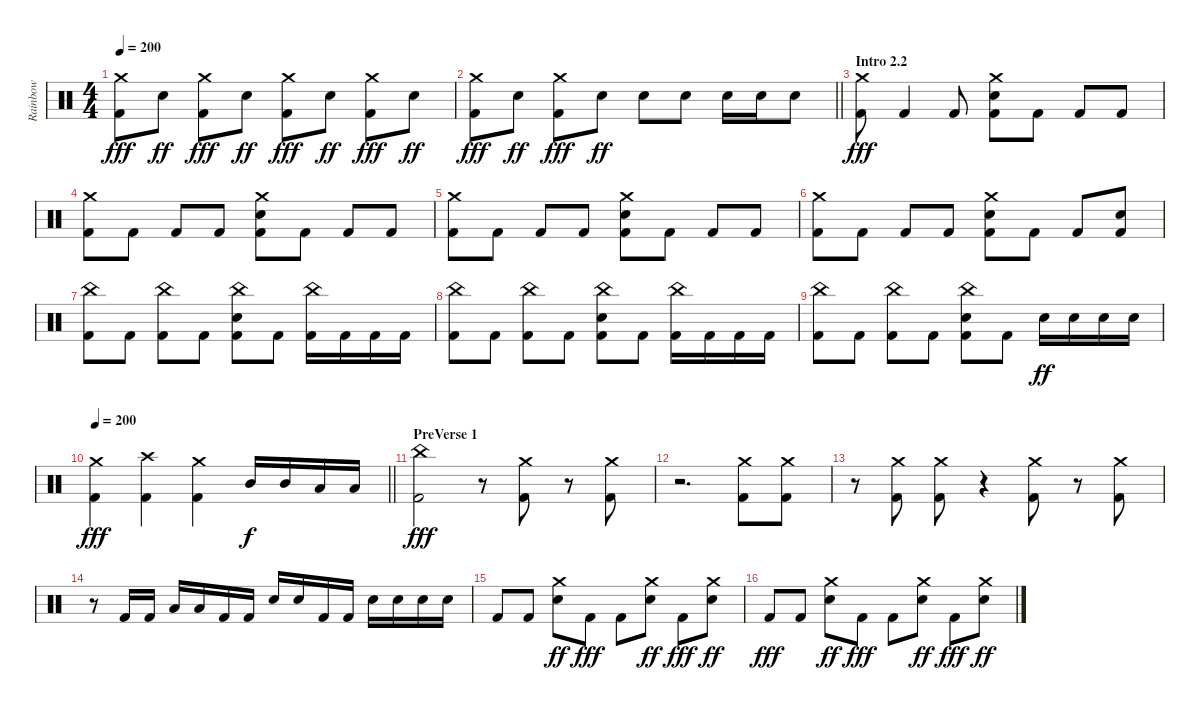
\track ("Rainbow" "Rainbow") {instrument percussion}
\staff {score}
\articulation defaults
\ts (4 4)
\tempo 200
\clef neutral
\ks c
("Crash medium (hit)" "Kick (hit) 2").8{dy fff} "Electric Snare (hit)".8{dy ff} ("Crash medium (hit)" "Kick (hit) 2").8{dy fff} "Electric Snare (hit)".8{dy ff} ("Crash medium (hit)" "Kick (hit) 2").8{dy fff} "Electric Snare (hit)".8{dy ff} ("Crash medium (hit)" "Kick (hit) 2").8{dy fff} "Electric Snare (hit)".8{dy ff} |
\barLineRight lightlight
("Crash medium (hit)" "Kick (hit) 2").8{dy fff} "Electric Snare (hit)".8{dy ff} ("Crash medium (hit)" "Kick (hit) 2").8{dy fff} "Electric Snare (hit)".8{dy ff} "Electric Snare (hit)".8 "Electric Snare (hit)".8 "Electric Snare (hit)".16 "Electric Snare (hit)".16 "Electric Snare (hit)".8 |
\section ("" "Intro 2.2")
("Crash medium (hit)" "Kick (hit) 2").8{dy fff} "Kick (hit) 2".4 "Kick (hit) 2".8 ("Crash medium (hit)" "Electric Snare (hit)" "Kick (hit) 2").8 "Kick (hit) 2".8 "Kick (hit) 2".8 "Kick (hit) 2".8 |
("Crash medium (hit)" "Kick (hit) 2").8 "Kick (hit) 2".8 "Kick (hit) 2".8 "Kick (hit) 2".8 ("Crash medium (hit)" "Electric Snare (hit)" "Kick (hit) 2").8 "Kick (hit) 2".8 "Kick (hit) 2".8 "Kick (hit) 2".8 |
("Crash medium (hit)" "Kick (hit) 2").8 "Kick (hit) 2".8 "Kick (hit) 2".8 "Kick (hit) 2".8 ("Crash medium (hit)" "Electric Snare (hit)" "Kick (hit) 2").8 "Kick (hit) 2".8 "Kick (hit) 2".8 "Kick (hit) 2".8 |
("Crash medium (hit)" "Kick (hit) 2").8 "Kick (hit) 2".8 "Kick (hit) 2".8 "Kick (hit) 2".8 ("Crash medium (hit)" "Electric Snare (hit)" "Kick (hit) 2").8 "Kick (hit) 2".8 "Kick (hit) 2".8 ("Electric Snare (hit)" "Kick (hit) 2").8 |
("China (hit)" "Kick (hit) 2").8 "Kick (hit) 2".8 ("China (hit)" "Kick (hit) 2").8 "Kick (hit) 2".8 ("China (hit)" "Electric Snare (hit)" "Kick (hit) 2").8 "Kick (hit) 2".8 ("China (hit)" "Kick (hit) 2").16 "Kick (hit) 2".16 "Kick (hit) 2".16 "Kick (hit) 2".16 |
("China (hit)" "Kick (hit) 2").8 "Kick (hit) 2".8 ("China (hit)" "Kick (hit) 2").8 "Kick (hit) 2".8 ("China (hit)" "Electric Snare (hit)" "Kick (hit) 2").8 "Kick (hit) 2".8 ("China (hit)" "Kick (hit) 2").16 "Kick (hit) 2".16 "Kick (hit) 2".16 "Kick (hit) 2".16 |
("China (hit)" "Kick (hit) 2").8 "Kick (hit) 2".8 ("China (hit)" "Kick (hit) 2").8 "Kick (hit) 2".8 ("China (hit)" "Electric Snare (hit)" "Kick (hit) 2").8 "Kick (hit) 2".8 "Electric Snare (hit)".16{dy ff} "Electric Snare (hit)".16 "Electric Snare (hit)".16 "Electric Snare (hit)".16 |
\tempo 200
\barLineRight lightlight
("Crash medium (hit)" "Kick (hit) 2").4{dy fff} ("Crash high (hit)" "Kick (hit) 2").4 ("Crash medium (hit)" "Kick (hit) 2").4 "Mid Tom (hit)".16{dy f} "Mid Tom (hit)".16 "Low Tom (hit)".16 "Low Tom (hit)".16 |
\section ("" "PreVerse 1")
("China (hit)" "Kick (hit) 2").2{dy fff} r.8 ("Crash medium (hit)" "Kick (hit) 2").8 r.8{volume 0} ("Crash medium (hit)" "Kick (hit) 2").8{volume 13} |
r.2{d volume 0} ("Crash medium (hit)" "Kick (hit) 2").8{volume 13} ("Crash medium (hit)" "Kick (hit) 2").8 |
r.8{volume 0} ("Crash medium (hit)" "Kick (hit) 2").8{volume 13} ("Crash medium (hit)" "Kick (hit) 2").8 r.4{volume 0} ("Crash medium (hit)" "Kick (hit) 2").8{volume 13} r.8{volume 0} ("Crash medium (hit)" "Kick (hit) 2").8{volume 13} |
r.8{volume 0} "Kick (hit) 2".16{volume 13} "Kick (hit) 2".16 "Low Tom (hit)".16 "Low Tom (hit)".16 "Kick (hit) 2".16 "Kick (hit) 2".16 "Electric Snare (hit)".16 "Electric Snare (hit)".16 "Kick (hit) 2".16 "Kick (hit) 2".16 "Electric Snare (hit)".16 "Electric Snare (hit)".16 "Electric Snare (hit)".16 "Electric Snare (hit)".16 |
"Kick (hit) 2".8 "Kick (hit) 2".8 ("Crash medium (hit)" "Electric Snare (hit)").8{dy ff} "Kick (hit) 2".8{dy fff} "Kick (hit) 2".8 ("Crash medium (hit)" "Electric Snare (hit)").8{dy ff} "Kick (hit) 2".8{dy fff} ("Crash medium (hit)" "Electric Snare (hit)").8{dy ff} |
"Kick (hit) 2".8{dy fff} "Kick (hit) 2".8 ("Crash medium (hit)" "Electric Snare (hit)").8{dy ff} "Kick (hit) 2".8{dy fff} "Kick (hit) 2".8 ("Crash medium (hit)" "Electric Snare (hit)").8{dy ff} "Kick (hit) 2".8{dy fff} ("Crash medium (hit)" "Electric Snare (hit)").8{dy ff}
